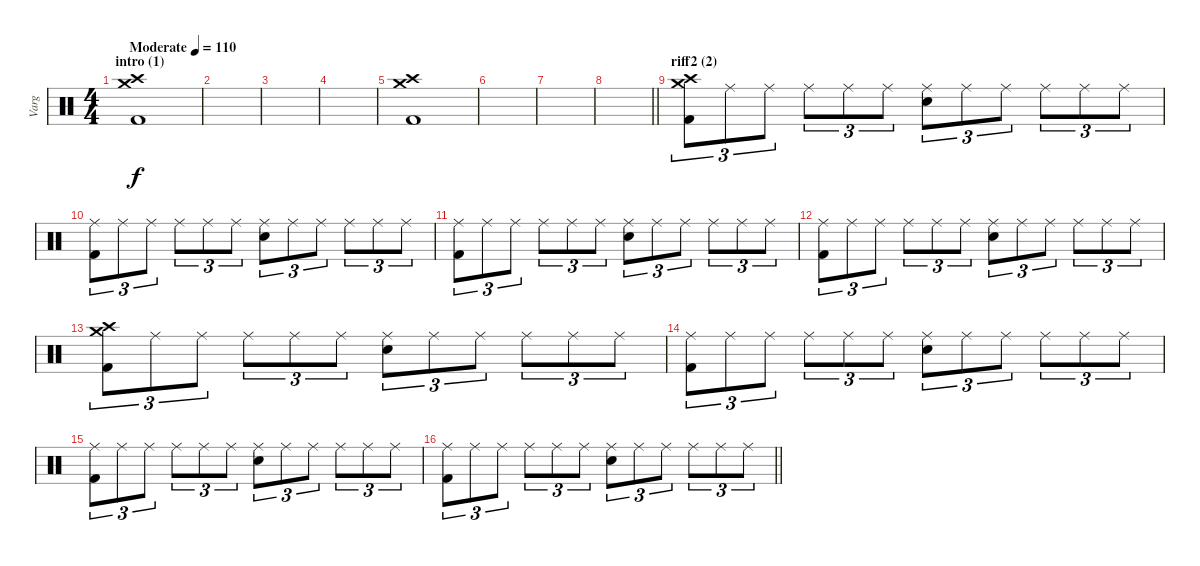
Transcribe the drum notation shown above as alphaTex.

\track ("Varg" "Varg") {instrument percussion}
\staff {score}
\articulation defaults
\ts (4 4)
\section ("" "intro (1)")
\tempo (110 "Moderate")
\clef neutral
\ks c
("Crash high (hit)" "Crash medium (hit)" "Kick (hit) 2").1{dy f} |
|
|
|
("Crash high (hit)" "Crash medium (hit)" "Kick (hit) 2").1 |
|
|
\barLineRight lightlight
|
\section ("" "riff2 (2)")
("Crash high (hit)" "Crash medium (hit)" "Kick (hit) 2").8{tu (3 2)} "Ride (middle)".8{tu (3 2)} "Ride (middle)".8{tu (3 2)} "Ride (middle)".8{tu (3 2)} "Ride (middle)".8{tu (3 2)} "Ride (middle)".8{tu (3 2)} ("Ride (middle)" "Snare (hit) 2").8{tu (3 2)} "Ride (middle)".8{tu (3 2)} "Ride (middle)".8{tu (3 2)} "Ride (middle)".8{tu (3 2)} "Ride (middle)".8{tu (3 2)} "Ride (middle)".8{tu (3 2)} |
("Ride (middle)" "Kick (hit) 2").8{tu (3 2)} "Ride (middle)".8{tu (3 2)} "Ride (middle)".8{tu (3 2)} "Ride (middle)".8{tu (3 2)} "Ride (middle)".8{tu (3 2)} "Ride (middle)".8{tu (3 2)} ("Ride (middle)" "Snare (hit) 2").8{tu (3 2)} "Ride (middle)".8{tu (3 2)} "Ride (middle)".8{tu (3 2)} "Ride (middle)".8{tu (3 2)} "Ride (middle)".8{tu (3 2)} "Ride (middle)".8{tu (3 2)} |
("Ride (middle)" "Kick (hit) 2").8{tu (3 2)} "Ride (middle)".8{tu (3 2)} "Ride (middle)".8{tu (3 2)} "Ride (middle)".8{tu (3 2)} "Ride (middle)".8{tu (3 2)} "Ride (middle)".8{tu (3 2)} ("Ride (middle)" "Snare (hit) 2").8{tu (3 2)} "Ride (middle)".8{tu (3 2)} "Ride (middle)".8{tu (3 2)} "Ride (middle)".8{tu (3 2)} "Ride (middle)".8{tu (3 2)} "Ride (middle)".8{tu (3 2)} |
("Ride (middle)" "Kick (hit) 2").8{tu (3 2)} "Ride (middle)".8{tu (3 2)} "Ride (middle)".8{tu (3 2)} "Ride (middle)".8{tu (3 2)} "Ride (middle)".8{tu (3 2)} "Ride (middle)".8{tu (3 2)} ("Ride (middle)" "Snare (hit) 2").8{tu (3 2)} "Ride (middle)".8{tu (3 2)} "Ride (middle)".8{tu (3 2)} "Ride (middle)".8{tu (3 2)} "Ride (middle)".8{tu (3 2)} "Ride (middle)".8{tu (3 2)} |
("Crash high (hit)" "Crash medium (hit)" "Kick (hit) 2").8{tu (3 2)} "Ride (middle)".8{tu (3 2)} "Ride (middle)".8{tu (3 2)} "Ride (middle)".8{tu (3 2)} "Ride (middle)".8{tu (3 2)} "Ride (middle)".8{tu (3 2)} ("Ride (middle)" "Snare (hit) 2").8{tu (3 2)} "Ride (middle)".8{tu (3 2)} "Ride (middle)".8{tu (3 2)} "Ride (middle)".8{tu (3 2)} "Ride (middle)".8{tu (3 2)} "Ride (middle)".8{tu (3 2)} |
("Ride (middle)" "Kick (hit) 2").8{tu (3 2)} "Ride (middle)".8{tu (3 2)} "Ride (middle)".8{tu (3 2)} "Ride (middle)".8{tu (3 2)} "Ride (middle)".8{tu (3 2)} "Ride (middle)".8{tu (3 2)} ("Ride (middle)" "Snare (hit) 2").8{tu (3 2)} "Ride (middle)".8{tu (3 2)} "Ride (middle)".8{tu (3 2)} "Ride (middle)".8{tu (3 2)} "Ride (middle)".8{tu (3 2)} "Ride (middle)".8{tu (3 2)} |
("Ride (middle)" "Kick (hit) 2").8{tu (3 2)} "Ride (middle)".8{tu (3 2)} "Ride (middle)".8{tu (3 2)} "Ride (middle)".8{tu (3 2)} "Ride (middle)".8{tu (3 2)} "Ride (middle)".8{tu (3 2)} ("Ride (middle)" "Snare (hit) 2").8{tu (3 2)} "Ride (middle)".8{tu (3 2)} "Ride (middle)".8{tu (3 2)} "Ride (middle)".8{tu (3 2)} "Ride (middle)".8{tu (3 2)} "Ride (middle)".8{tu (3 2)} |
\barLineRight lightlight
("Ride (middle)" "Kick (hit) 2").8{tu (3 2)} "Ride (middle)".8{tu (3 2)} "Ride (middle)".8{tu (3 2)} "Ride (middle)".8{tu (3 2)} "Ride (middle)".8{tu (3 2)} "Ride (middle)".8{tu (3 2)} ("Ride (middle)" "Snare (hit) 2").8{tu (3 2)} "Ride (middle)".8{tu (3 2)} "Ride (middle)".8{tu (3 2)} "Ride (middle)".8{tu (3 2)} "Ride (middle)".8{tu (3 2)} "Ride (middle)".8{tu (3 2)}
